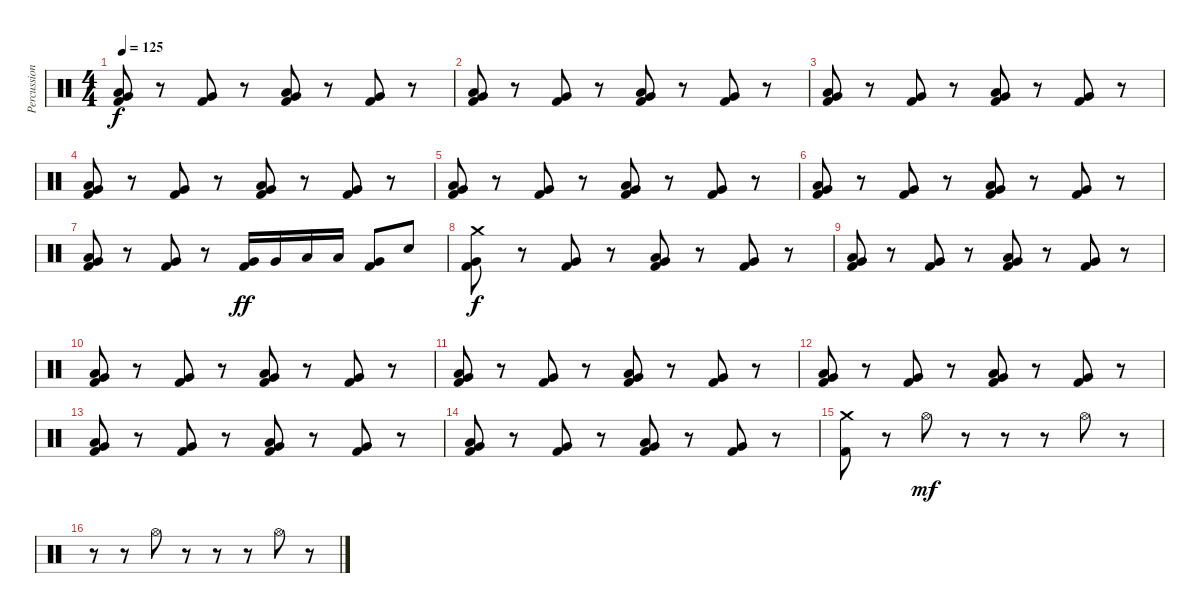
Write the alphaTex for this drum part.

\track ("Percussion" "Percussion") {instrument percussion}
\staff {score}
\articulation defaults
\ts (4 4)
\tempo 125
\clef neutral
\ks c
("Very Low Tom (hit)" "Low Floor Tom (hit)" "Kick (hit) 2").8{dy f} r.8 ("Very Low Tom (hit)" "Kick (hit) 2").8 r.8 ("Very Low Tom (hit)" "Low Floor Tom (hit)" "Kick (hit) 2").8 r.8 ("Very Low Tom (hit)" "Kick (hit) 2").8 r.8 |
("Very Low Tom (hit)" "Low Floor Tom (hit)" "Kick (hit) 2").8 r.8 ("Very Low Tom (hit)" "Kick (hit) 2").8 r.8 ("Very Low Tom (hit)" "Low Floor Tom (hit)" "Kick (hit) 2").8 r.8 ("Very Low Tom (hit)" "Kick (hit) 2").8 r.8 |
("Very Low Tom (hit)" "Low Floor Tom (hit)" "Kick (hit) 2").8 r.8 ("Very Low Tom (hit)" "Kick (hit) 2").8 r.8 ("Very Low Tom (hit)" "Low Floor Tom (hit)" "Kick (hit) 2").8 r.8 ("Very Low Tom (hit)" "Kick (hit) 2").8 r.8 |
("Very Low Tom (hit)" "Low Floor Tom (hit)" "Kick (hit) 2").8 r.8 ("Very Low Tom (hit)" "Kick (hit) 2").8 r.8 ("Very Low Tom (hit)" "Low Floor Tom (hit)" "Kick (hit) 2").8 r.8 ("Very Low Tom (hit)" "Kick (hit) 2").8 r.8 |
("Very Low Tom (hit)" "Low Floor Tom (hit)" "Kick (hit) 2").8 r.8 ("Very Low Tom (hit)" "Kick (hit) 2").8 r.8 ("Very Low Tom (hit)" "Low Floor Tom (hit)" "Kick (hit) 2").8 r.8 ("Very Low Tom (hit)" "Kick (hit) 2").8 r.8 |
("Very Low Tom (hit)" "Low Floor Tom (hit)" "Kick (hit) 2").8 r.8 ("Very Low Tom (hit)" "Kick (hit) 2").8 r.8 ("Very Low Tom (hit)" "Low Floor Tom (hit)" "Kick (hit) 2").8 r.8 ("Very Low Tom (hit)" "Kick (hit) 2").8 r.8 |
("Very Low Tom (hit)" "Low Floor Tom (hit)" "Kick (hit) 2").8 r.8 ("Very Low Tom (hit)" "Kick (hit) 2").8 r.8 ("Very Low Tom (hit)" "Kick (hit) 2").16{dy ff} "Very Low Tom (hit)".16 "Low Floor Tom (hit)".16 "Low Floor Tom (hit)".16 ("Very Low Tom (hit)" "Kick (hit) 2").8 "Electric Snare (hit)".8 |
("Crash medium (hit)" "Very Low Tom (hit)" "Kick (hit) 2").8{dy f} r.8 ("Very Low Tom (hit)" "Kick (hit) 2").8 r.8 ("Very Low Tom (hit)" "Low Floor Tom (hit)" "Kick (hit) 2").8 r.8 ("Very Low Tom (hit)" "Kick (hit) 2").8 r.8 |
("Very Low Tom (hit)" "Low Floor Tom (hit)" "Kick (hit) 2").8 r.8 ("Very Low Tom (hit)" "Kick (hit) 2").8 r.8 ("Very Low Tom (hit)" "Low Floor Tom (hit)" "Kick (hit) 2").8 r.8 ("Very Low Tom (hit)" "Kick (hit) 2").8 r.8 |
("Very Low Tom (hit)" "Low Floor Tom (hit)" "Kick (hit) 2").8 r.8 ("Very Low Tom (hit)" "Kick (hit) 2").8 r.8 ("Very Low Tom (hit)" "Low Floor Tom (hit)" "Kick (hit) 2").8 r.8 ("Very Low Tom (hit)" "Kick (hit) 2").8 r.8 |
("Very Low Tom (hit)" "Low Floor Tom (hit)" "Kick (hit) 2").8 r.8 ("Very Low Tom (hit)" "Kick (hit) 2").8 r.8 ("Very Low Tom (hit)" "Low Floor Tom (hit)" "Kick (hit) 2").8 r.8 ("Very Low Tom (hit)" "Kick (hit) 2").8 r.8 |
("Very Low Tom (hit)" "Low Floor Tom (hit)" "Kick (hit) 2").8 r.8 ("Very Low Tom (hit)" "Kick (hit) 2").8 r.8 ("Very Low Tom (hit)" "Low Floor Tom (hit)" "Kick (hit) 2").8 r.8 ("Very Low Tom (hit)" "Kick (hit) 2").8 r.8 |
("Very Low Tom (hit)" "Low Floor Tom (hit)" "Kick (hit) 2").8 r.8 ("Very Low Tom (hit)" "Kick (hit) 2").8 r.8 ("Very Low Tom (hit)" "Low Floor Tom (hit)" "Kick (hit) 2").8 r.8 ("Very Low Tom (hit)" "Kick (hit) 2").8 r.8 |
("Very Low Tom (hit)" "Low Floor Tom (hit)" "Kick (hit) 2").8 r.8 ("Very Low Tom (hit)" "Kick (hit) 2").8 r.8 ("Very Low Tom (hit)" "Low Floor Tom (hit)" "Kick (hit) 2").8 r.8 ("Very Low Tom (hit)" "Kick (hit) 2").8 r.8 |
("Crash medium (hit)" "Kick (hit) 2").8 r.8 "Hi-Hat (open)".8{dy mf} r.8 r.8 r.8 "Hi-Hat (open)".8 r.8 |
r.8 r.8 "Hi-Hat (open)".8 r.8 r.8 r.8 "Hi-Hat (open)".8 r.8
